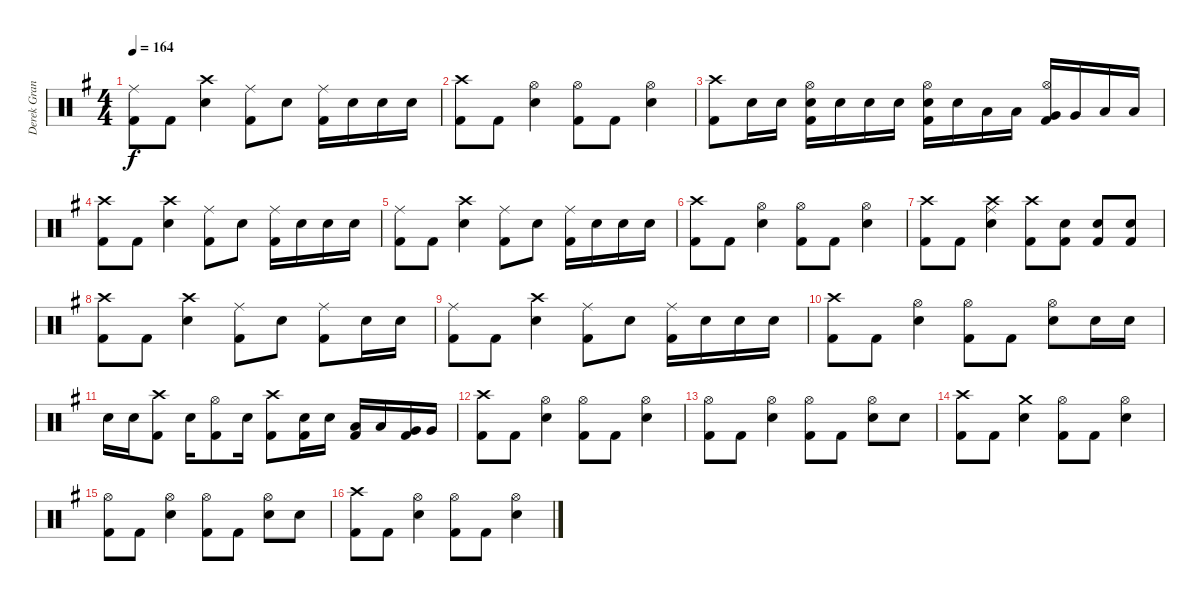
\track ("Derek Grant - Drums" "Derek Gran") {instrument percussion}
\staff {score}
\articulation defaults
\ts (4 4)
\tempo 164
\clef neutral
\ks eminor
("Kick (hit) 2" "Ride (middle)").8{dy f} "Kick (hit) 2".8 ("Snare (hit) 2" "Crash high (hit)").4 ("Kick (hit) 2" "Ride (middle)").8 "Snare (hit) 2".8 ("Kick (hit) 2" "Ride (middle)").16 "Snare (hit) 2".16 "Snare (hit) 2".16 "Snare (hit) 2".16 |
("Kick (hit) 2" "Crash high (hit)").8 "Kick (hit) 2".8 ("Snare (hit) 2" "Hi-Hat (open)").4 ("Kick (hit) 2" "Hi-Hat (open)").8 "Kick (hit) 2".8 ("Snare (hit) 2" "Hi-Hat (open)").4 |
("Kick (hit) 2" "Crash high (hit)").8 "Snare (hit) 2".16 "Snare (hit) 2".16 ("Snare (hit) 2" "Kick (hit) 2" "Hi-Hat (open)").16 "Snare (hit) 2".16 "Snare (hit) 2".16 "Snare (hit) 2".16 ("Snare (hit) 2" "Kick (hit) 2" "Hi-Hat (open)").16 "Snare (hit) 2".16 "Low Tom (hit)".16 "Low Tom (hit)".16 ("Very Low Tom (hit)" "Kick (hit) 2" "Hi-Hat (open)").16 "Very Low Tom (hit)".16 "Low Floor Tom (hit)".16 "Low Floor Tom (hit)".16 |
("Kick (hit) 2" "Crash high (hit)").8 "Kick (hit) 2".8 ("Snare (hit) 2" "Crash high (hit)").4 ("Kick (hit) 2" "Ride (middle)").8 "Electric Snare (hit)".8 ("Kick (hit) 2" "Ride (middle)").16 "Electric Snare (hit)".16 "Electric Snare (hit)".16 "Electric Snare (hit)".16 |
("Kick (hit) 2" "Ride (middle)").8 "Kick (hit) 2".8 ("Snare (hit) 2" "Crash high (hit)").4 ("Kick (hit) 2" "Ride (middle)").8 "Snare (hit) 2".8 ("Kick (hit) 2" "Ride (middle)").16 "Snare (hit) 2".16 "Snare (hit) 2".16 "Snare (hit) 2".16 |
("Kick (hit) 2" "Crash high (hit)").8 "Kick (hit) 2".8 ("Snare (hit) 2" "Hi-Hat (open)").4 ("Kick (hit) 2" "Hi-Hat (open)").8 "Kick (hit) 2".8 ("Snare (hit) 2" "Hi-Hat (open)").4 |
("Kick (hit) 2" "Crash high (hit)").8 "Kick (hit) 2".8 ("Snare (hit) 2" "Crash high (hit)" "Ride (middle)").4 ("Kick (hit) 2" "Crash high (hit)").8 ("Snare (hit) 2" "Kick (hit) 2").8 ("Snare (hit) 2" "Kick (hit) 2").8 ("Snare (hit) 2" "Kick (hit) 2").8 |
("Kick (hit) 2" "Crash high (hit)").8 "Kick (hit) 2".8 ("Snare (hit) 2" "Crash high (hit)").4 ("Kick (hit) 2" "Ride (middle)").8 "Electric Snare (hit)".8 ("Kick (hit) 2" "Ride (middle)").8 "Electric Snare (hit)".16 "Electric Snare (hit)".16 |
("Kick (hit) 2" "Ride (middle)").8 "Kick (hit) 2".8 ("Snare (hit) 2" "Crash high (hit)").4 ("Kick (hit) 2" "Ride (middle)").8 "Snare (hit) 2".8 ("Kick (hit) 2" "Ride (middle)").16 "Snare (hit) 2".16 "Snare (hit) 2".16 "Snare (hit) 2".16 |
("Kick (hit) 2" "Crash high (hit)").8 "Kick (hit) 2".8 ("Snare (hit) 2" "Hi-Hat (open)").4 ("Kick (hit) 2" "Hi-Hat (open)").8 "Kick (hit) 2".8 ("Snare (hit) 2" "Hi-Hat (open)").8 "Snare (hit) 2".16 "Snare (hit) 2".16 |
"Snare (hit) 2".16 "Snare (hit) 2".16 ("Kick (hit) 2" "Crash high (hit)").8 "Snare (hit) 2".16 ("Kick (hit) 2" "Hi-Hat (open)").8 "Snare (hit) 2".16 ("Kick (hit) 2" "Crash high (hit)").8 ("Snare (hit) 2" "Kick (hit) 2").16 "Snare (hit) 2".16 ("Low Tom (hit)" "Kick (hit) 2").16 "Low Tom (hit)".16 ("Very Low Tom (hit)" "Kick (hit) 2").16 "Very Low Tom (hit)".16 |
("Kick (hit) 2" "Crash high (hit)").8 "Kick (hit) 2".8 ("Snare (hit) 2" "Hi-Hat (open)").4 ("Kick (hit) 2" "Hi-Hat (open)").8 "Kick (hit) 2".8 ("Snare (hit) 2" "Hi-Hat (open)").4 |
("Kick (hit) 2" "Hi-Hat (open)").8 "Kick (hit) 2".8 ("Snare (hit) 2" "Hi-Hat (open)").4 ("Kick (hit) 2" "Hi-Hat (open)").8 "Kick (hit) 2".8 ("Snare (hit) 2" "Hi-Hat (open)").8 "Snare (hit) 2".8 |
("Kick (hit) 2" "Crash high (hit)").8 "Kick (hit) 2".8 ("Snare (hit) 2" "Crash medium (hit)").4 ("Kick (hit) 2" "Hi-Hat (open)").8 "Kick (hit) 2".8 ("Snare (hit) 2" "Hi-Hat (open)").4 |
("Kick (hit) 2" "Hi-Hat (open)").8 "Kick (hit) 2".8 ("Snare (hit) 2" "Hi-Hat (open)").4 ("Kick (hit) 2" "Hi-Hat (open)").8 "Kick (hit) 2".8 ("Snare (hit) 2" "Hi-Hat (open)").8 "Snare (hit) 2".8 |
("Kick (hit) 2" "Crash high (hit)").8 "Kick (hit) 2".8 ("Snare (hit) 2" "Hi-Hat (open)").4 ("Kick (hit) 2" "Hi-Hat (open)").8 "Kick (hit) 2".8 ("Snare (hit) 2" "Hi-Hat (open)").4
